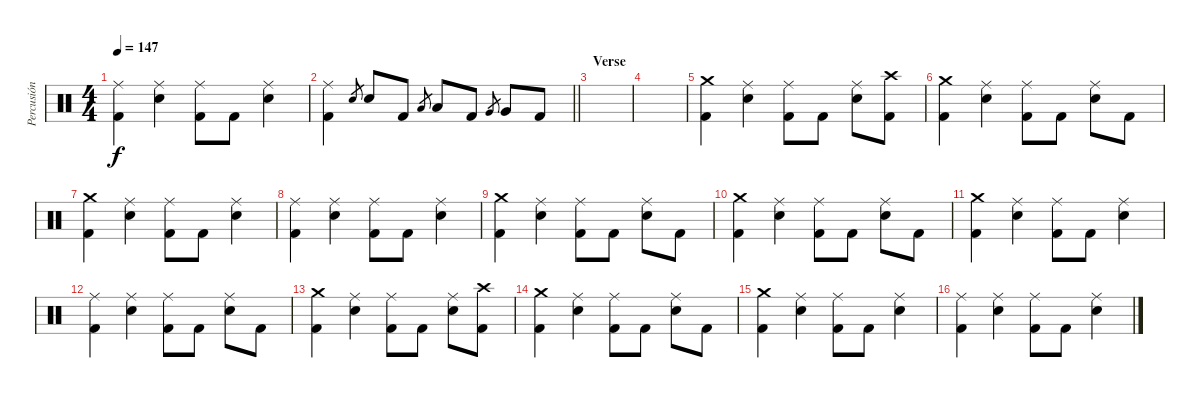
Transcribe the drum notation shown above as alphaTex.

\track ("Percusión" "Percusión") {instrument percussion}
\staff {score}
\articulation defaults
\ts (4 4)
\tempo 147
\clef neutral
\ks c
("Ride (middle)" "Kick (hit) 2").4{dy f} ("Ride (middle)" "Snare (hit) 2").4 ("Ride (middle)" "Kick (hit) 2").8 "Kick (hit) 2".8 ("Ride (middle)" "Snare (hit) 2").4 |
\barLineRight lightlight
("Ride (middle)" "Kick (hit) 2").4 "Snare (hit) 2".8{gr} "Snare (hit) 2".8 "Kick (hit) 2".8 "Low Tom (hit)".8{gr} "Low Tom (hit)".8 "Kick (hit) 2".8 "Very Low Tom (hit)".8{gr} "Very Low Tom (hit)".8 "Kick (hit) 2".8 |
\section ("" "Verse")
|
|
("Crash medium (hit)" "Kick (hit) 2").4 ("Ride (middle)" "Snare (hit) 2").4 ("Ride (middle)" "Kick (hit) 2").8 "Kick (hit) 2".8 ("Ride (middle)" "Snare (hit) 2").8 ("Crash high (hit)" "Kick (hit) 2").8 |
("Crash medium (hit)" "Kick (hit) 2").4 ("Ride (middle)" "Snare (hit) 2").4 ("Ride (middle)" "Kick (hit) 2").8 "Kick (hit) 2".8 ("Ride (middle)" "Snare (hit) 2").8 "Kick (hit) 2".8 |
("Crash medium (hit)" "Kick (hit) 2").4 ("Ride (middle)" "Snare (hit) 2").4 ("Ride (middle)" "Kick (hit) 2").8 "Kick (hit) 2".8 ("Ride (middle)" "Snare (hit) 2").4 |
("Ride (middle)" "Kick (hit) 2").4 ("Ride (middle)" "Snare (hit) 2").4 ("Ride (middle)" "Kick (hit) 2").8 "Kick (hit) 2".8 ("Ride (middle)" "Snare (hit) 2").4 |
("Crash medium (hit)" "Kick (hit) 2").4 ("Ride (middle)" "Snare (hit) 2").4 ("Ride (middle)" "Kick (hit) 2").8 "Kick (hit) 2".8 ("Ride (middle)" "Snare (hit) 2").8 "Kick (hit) 2".8 |
("Crash medium (hit)" "Kick (hit) 2").4 ("Ride (middle)" "Snare (hit) 2").4 ("Ride (middle)" "Kick (hit) 2").8 "Kick (hit) 2".8 ("Ride (middle)" "Snare (hit) 2").8 "Kick (hit) 2".8 |
("Crash medium (hit)" "Kick (hit) 2").4 ("Ride (middle)" "Snare (hit) 2").4 ("Ride (middle)" "Kick (hit) 2").8 "Kick (hit) 2".8 ("Ride (middle)" "Snare (hit) 2").4 |
("Ride (middle)" "Kick (hit) 2").4 ("Ride (middle)" "Snare (hit) 2").4 ("Ride (middle)" "Kick (hit) 2").8 "Kick (hit) 2".8 ("Ride (middle)" "Snare (hit) 2").8 "Kick (hit) 2".8 |
("Crash medium (hit)" "Kick (hit) 2").4 ("Ride (middle)" "Snare (hit) 2").4 ("Ride (middle)" "Kick (hit) 2").8 "Kick (hit) 2".8 ("Ride (middle)" "Snare (hit) 2").8 ("Crash high (hit)" "Kick (hit) 2").8 |
("Crash medium (hit)" "Kick (hit) 2").4 ("Ride (middle)" "Snare (hit) 2").4 ("Ride (middle)" "Kick (hit) 2").8 "Kick (hit) 2".8 ("Ride (middle)" "Snare (hit) 2").8 "Kick (hit) 2".8 |
("Crash medium (hit)" "Kick (hit) 2").4 ("Ride (middle)" "Snare (hit) 2").4 ("Ride (middle)" "Kick (hit) 2").8 "Kick (hit) 2".8 ("Ride (middle)" "Snare (hit) 2").4 |
("Ride (middle)" "Kick (hit) 2").4 ("Ride (middle)" "Snare (hit) 2").4 ("Ride (middle)" "Kick (hit) 2").8 "Kick (hit) 2".8 ("Ride (middle)" "Snare (hit) 2").4
